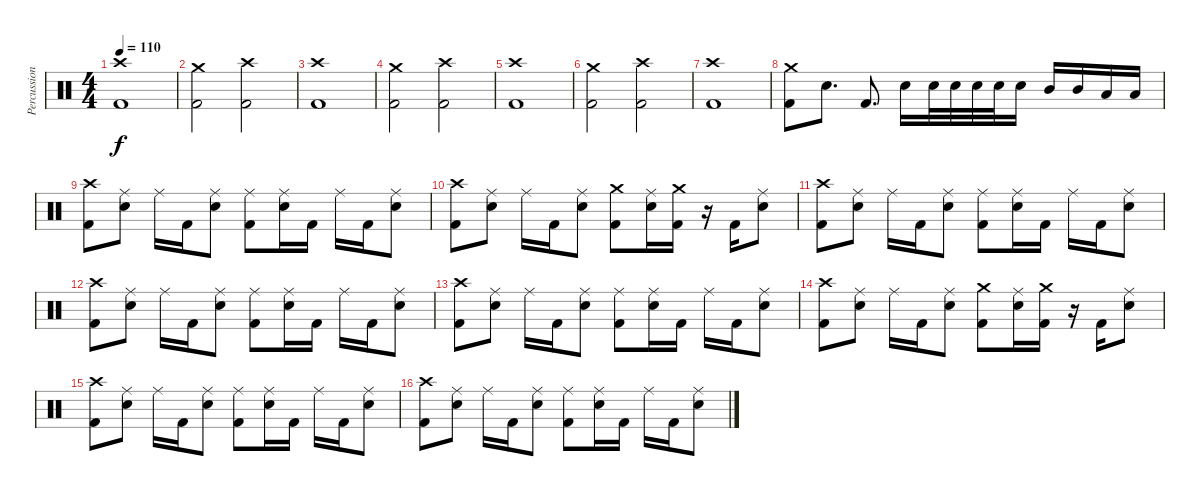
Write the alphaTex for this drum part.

\track ("Percussion" "Percussion") {instrument percussion}
\staff {score}
\articulation defaults
\ts (4 4)
\tempo 110
\clef neutral
\ks c
("Crash high (hit)" "Kick (hit) 2").1{dy f} |
("Crash medium (hit)" "Kick (hit) 2").2 ("Crash high (hit)" "Kick (hit) 2").2 |
("Crash high (hit)" "Kick (hit) 2").1 |
("Crash medium (hit)" "Kick (hit) 2").2 ("Crash high (hit)" "Kick (hit) 2").2 |
("Crash high (hit)" "Kick (hit) 2").1 |
("Crash medium (hit)" "Kick (hit) 2").2 ("Crash high (hit)" "Kick (hit) 2").2 |
("Crash high (hit)" "Kick (hit) 2").1 |
("Crash medium (hit)" "Kick (hit) 2").8 "Electric Snare (hit)".8{d} "Kick (hit) 2".8{d} "Electric Snare (hit)".16 "Electric Snare (hit)".32 "Electric Snare (hit)".32 "Electric Snare (hit)".32 "Electric Snare (hit)".32 "Electric Snare (hit)".16 "Mid Tom (hit)".16 "Mid Tom (hit)".16 "Low Tom (hit)".16 "Low Tom (hit)".16 |
("Crash high (hit)" "Kick (hit) 2").8 ("Ride (middle)" "Electric Snare (hit)").8 "Ride (middle)".16 "Kick (hit) 2".16 ("Ride (middle)" "Electric Snare (hit)").8 ("Ride (middle)" "Kick (hit) 2").8 ("Ride (middle)" "Electric Snare (hit)").16 "Kick (hit) 2".16 "Ride (middle)".16 "Kick (hit) 2".16 ("Ride (middle)" "Electric Snare (hit)").8 |
("Crash high (hit)" "Kick (hit) 2").8 ("Ride (middle)" "Electric Snare (hit)").8 "Ride (middle)".16 "Kick (hit) 2".16 ("Ride (middle)" "Electric Snare (hit)").8 ("Crash medium (hit)" "Kick (hit) 2").8 ("Ride (middle)" "Electric Snare (hit)").16 ("Crash medium (hit)" "Kick (hit) 2").16 r.16 "Kick (hit) 2".16 ("Ride (middle)" "Electric Snare (hit)").8 |
("Crash high (hit)" "Kick (hit) 2").8 ("Ride (middle)" "Electric Snare (hit)").8 "Ride (middle)".16 "Kick (hit) 2".16 ("Ride (middle)" "Electric Snare (hit)").8 ("Ride (middle)" "Kick (hit) 2").8 ("Ride (middle)" "Electric Snare (hit)").16 "Kick (hit) 2".16 "Ride (middle)".16 "Kick (hit) 2".16 ("Ride (middle)" "Electric Snare (hit)").8 |
("Crash high (hit)" "Kick (hit) 2").8 ("Ride (middle)" "Electric Snare (hit)").8 "Ride (middle)".16 "Kick (hit) 2".16 ("Ride (middle)" "Electric Snare (hit)").8 ("Ride (middle)" "Kick (hit) 2").8 ("Ride (middle)" "Electric Snare (hit)").16 "Kick (hit) 2".16 "Ride (middle)".16 "Kick (hit) 2".16 ("Ride (middle)" "Electric Snare (hit)").8 |
("Crash high (hit)" "Kick (hit) 2").8 ("Ride (middle)" "Electric Snare (hit)").8 "Ride (middle)".16 "Kick (hit) 2".16 ("Ride (middle)" "Electric Snare (hit)").8 ("Ride (middle)" "Kick (hit) 2").8 ("Ride (middle)" "Electric Snare (hit)").16 "Kick (hit) 2".16 "Ride (middle)".16 "Kick (hit) 2".16 ("Ride (middle)" "Electric Snare (hit)").8 |
("Crash high (hit)" "Kick (hit) 2").8 ("Ride (middle)" "Electric Snare (hit)").8 "Ride (middle)".16 "Kick (hit) 2".16 ("Ride (middle)" "Electric Snare (hit)").8 ("Crash medium (hit)" "Kick (hit) 2").8 ("Ride (middle)" "Electric Snare (hit)").16 ("Crash medium (hit)" "Kick (hit) 2").16 r.16 "Kick (hit) 2".16 ("Ride (middle)" "Electric Snare (hit)").8 |
("Crash high (hit)" "Kick (hit) 2").8 ("Ride (middle)" "Electric Snare (hit)").8 "Ride (middle)".16 "Kick (hit) 2".16 ("Ride (middle)" "Electric Snare (hit)").8 ("Ride (middle)" "Kick (hit) 2").8 ("Ride (middle)" "Electric Snare (hit)").16 "Kick (hit) 2".16 "Ride (middle)".16 "Kick (hit) 2".16 ("Ride (middle)" "Electric Snare (hit)").8 |
("Crash high (hit)" "Kick (hit) 2").8 ("Ride (middle)" "Electric Snare (hit)").8 "Ride (middle)".16 "Kick (hit) 2".16 ("Ride (middle)" "Electric Snare (hit)").8 ("Ride (middle)" "Kick (hit) 2").8 ("Ride (middle)" "Electric Snare (hit)").16 "Kick (hit) 2".16 "Ride (middle)".16 "Kick (hit) 2".16 ("Ride (middle)" "Electric Snare (hit)").8
